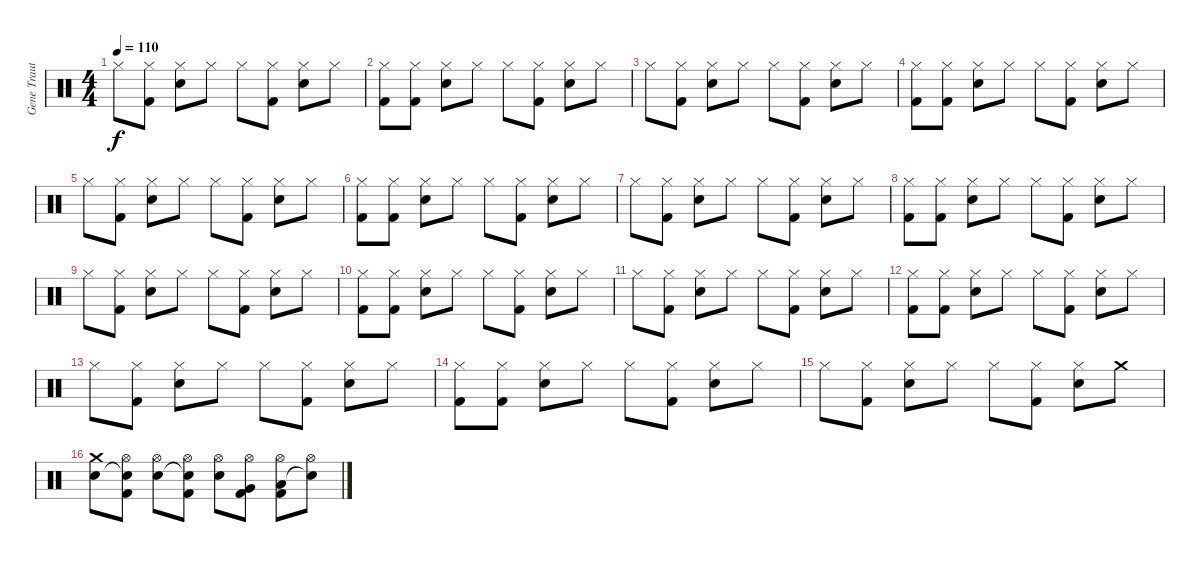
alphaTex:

\track ("Gene Trautmann (Drums)" "Gene Traut") {instrument percussion}
\staff {score}
\articulation defaults
\ts (4 4)
\tempo 110
\clef neutral
\ks c "Hi-Hat (closed)".8{dy f}
("Hi-Hat (closed)" "Kick (hit) 2").8 ("Hi-Hat (closed)" "Electric Snare (hit)").8 "Hi-Hat (closed)".8 "Hi-Hat (closed)".8 ("Hi-Hat (closed)" "Kick (hit) 2").8 ("Hi-Hat (closed)" "Electric Snare (hit)").8 "Hi-Hat (closed)".8 |
("Hi-Hat (closed)" "Kick (hit) 2").8 ("Hi-Hat (closed)" "Kick (hit) 2").8 ("Hi-Hat (closed)" "Electric Snare (hit)").8 "Hi-Hat (closed)".8 "Hi-Hat (closed)".8 ("Hi-Hat (closed)" "Kick (hit) 2").8 ("Hi-Hat (closed)" "Electric Snare (hit)").8 "Hi-Hat (closed)".8 |
"Hi-Hat (closed)".8 ("Hi-Hat (closed)" "Kick (hit) 2").8 ("Hi-Hat (closed)" "Electric Snare (hit)").8 "Hi-Hat (closed)".8 "Hi-Hat (closed)".8 ("Hi-Hat (closed)" "Kick (hit) 2").8 ("Hi-Hat (closed)" "Electric Snare (hit)").8 "Hi-Hat (closed)".8 |
("Hi-Hat (closed)" "Kick (hit) 2").8 ("Hi-Hat (closed)" "Kick (hit) 2").8 ("Hi-Hat (closed)" "Electric Snare (hit)").8 "Hi-Hat (closed)".8 "Hi-Hat (closed)".8 ("Hi-Hat (closed)" "Kick (hit) 2").8 ("Hi-Hat (closed)" "Electric Snare (hit)").8 "Hi-Hat (closed)".8 |
"Hi-Hat (closed)".8 ("Hi-Hat (closed)" "Kick (hit) 2").8 ("Hi-Hat (closed)" "Electric Snare (hit)").8 "Hi-Hat (closed)".8 "Hi-Hat (closed)".8 ("Hi-Hat (closed)" "Kick (hit) 2").8 ("Hi-Hat (closed)" "Electric Snare (hit)").8 "Hi-Hat (closed)".8 |
("Hi-Hat (closed)" "Kick (hit) 2").8 ("Hi-Hat (closed)" "Kick (hit) 2").8 ("Hi-Hat (closed)" "Electric Snare (hit)").8 "Hi-Hat (closed)".8 "Hi-Hat (closed)".8 ("Hi-Hat (closed)" "Kick (hit) 2").8 ("Hi-Hat (closed)" "Electric Snare (hit)").8 "Hi-Hat (closed)".8 |
"Hi-Hat (closed)".8 ("Hi-Hat (closed)" "Kick (hit) 2").8 ("Hi-Hat (closed)" "Electric Snare (hit)").8 "Hi-Hat (closed)".8 "Hi-Hat (closed)".8 ("Hi-Hat (closed)" "Kick (hit) 2").8 ("Hi-Hat (closed)" "Electric Snare (hit)").8 "Hi-Hat (closed)".8 |
("Hi-Hat (closed)" "Kick (hit) 2").8 ("Hi-Hat (closed)" "Kick (hit) 2").8 ("Hi-Hat (closed)" "Electric Snare (hit)").8 "Hi-Hat (closed)".8 "Hi-Hat (closed)".8 ("Hi-Hat (closed)" "Kick (hit) 2").8 ("Hi-Hat (closed)" "Electric Snare (hit)").8 "Hi-Hat (closed)".8 |
"Hi-Hat (closed)".8 ("Hi-Hat (closed)" "Kick (hit) 2").8 ("Hi-Hat (closed)" "Electric Snare (hit)").8 "Hi-Hat (closed)".8 "Hi-Hat (closed)".8 ("Hi-Hat (closed)" "Kick (hit) 2").8 ("Hi-Hat (closed)" "Electric Snare (hit)").8 "Hi-Hat (closed)".8 |
("Hi-Hat (closed)" "Kick (hit) 2").8 ("Hi-Hat (closed)" "Kick (hit) 2").8 ("Hi-Hat (closed)" "Electric Snare (hit)").8 "Hi-Hat (closed)".8 "Hi-Hat (closed)".8 ("Hi-Hat (closed)" "Kick (hit) 2").8 ("Hi-Hat (closed)" "Electric Snare (hit)").8 "Hi-Hat (closed)".8 |
"Hi-Hat (closed)".8 ("Hi-Hat (closed)" "Kick (hit) 2").8 ("Hi-Hat (closed)" "Electric Snare (hit)").8 "Hi-Hat (closed)".8 "Hi-Hat (closed)".8 ("Hi-Hat (closed)" "Kick (hit) 2").8 ("Hi-Hat (closed)" "Electric Snare (hit)").8 "Hi-Hat (closed)".8 |
("Hi-Hat (closed)" "Kick (hit) 2").8 ("Hi-Hat (closed)" "Kick (hit) 2").8 ("Hi-Hat (closed)" "Electric Snare (hit)").8 "Hi-Hat (closed)".8 "Hi-Hat (closed)".8 ("Hi-Hat (closed)" "Kick (hit) 2").8 ("Hi-Hat (closed)" "Electric Snare (hit)").8 "Hi-Hat (closed)".8 |
"Hi-Hat (closed)".8 ("Hi-Hat (closed)" "Kick (hit) 2").8 ("Hi-Hat (closed)" "Electric Snare (hit)").8 "Hi-Hat (closed)".8 "Hi-Hat (closed)".8 ("Hi-Hat (closed)" "Kick (hit) 2").8 ("Hi-Hat (closed)" "Electric Snare (hit)").8 "Hi-Hat (closed)".8 |
("Hi-Hat (closed)" "Kick (hit) 2").8 ("Hi-Hat (closed)" "Kick (hit) 2").8 ("Hi-Hat (closed)" "Electric Snare (hit)").8 "Hi-Hat (closed)".8 "Hi-Hat (closed)".8 ("Hi-Hat (closed)" "Kick (hit) 2").8 ("Hi-Hat (closed)" "Electric Snare (hit)").8 "Hi-Hat (closed)".8 |
"Hi-Hat (closed)".8 ("Hi-Hat (closed)" "Kick (hit) 2").8 ("Hi-Hat (closed)" "Electric Snare (hit)").8 "Hi-Hat (closed)".8 "Hi-Hat (closed)".8 ("Hi-Hat (closed)" "Kick (hit) 2").8 ("Hi-Hat (closed)" "Electric Snare (hit)").8 "Crash medium (hit)".8 |
("Crash medium (hit)" "Electric Snare (hit)").8 ("Hi-Hat (open)" "Snare (hit)"{t} "Kick (hit) 2").8 ("Hi-Hat (open)" "Electric Snare (hit)").8 ("Hi-Hat (open)" "Snare (hit)"{t} "Kick (hit) 2").8 ("Hi-Hat (open)" "Electric Snare (hit)").8 ("Hi-Hat (open)" "Very Low Tom (hit)" "Kick (hit) 2").8 ("Hi-Hat (open)" "Low Floor Tom (hit)" "Kick (hit) 2").8 ("Hi-Hat (open)" "Snare (hit)"{t}).8
